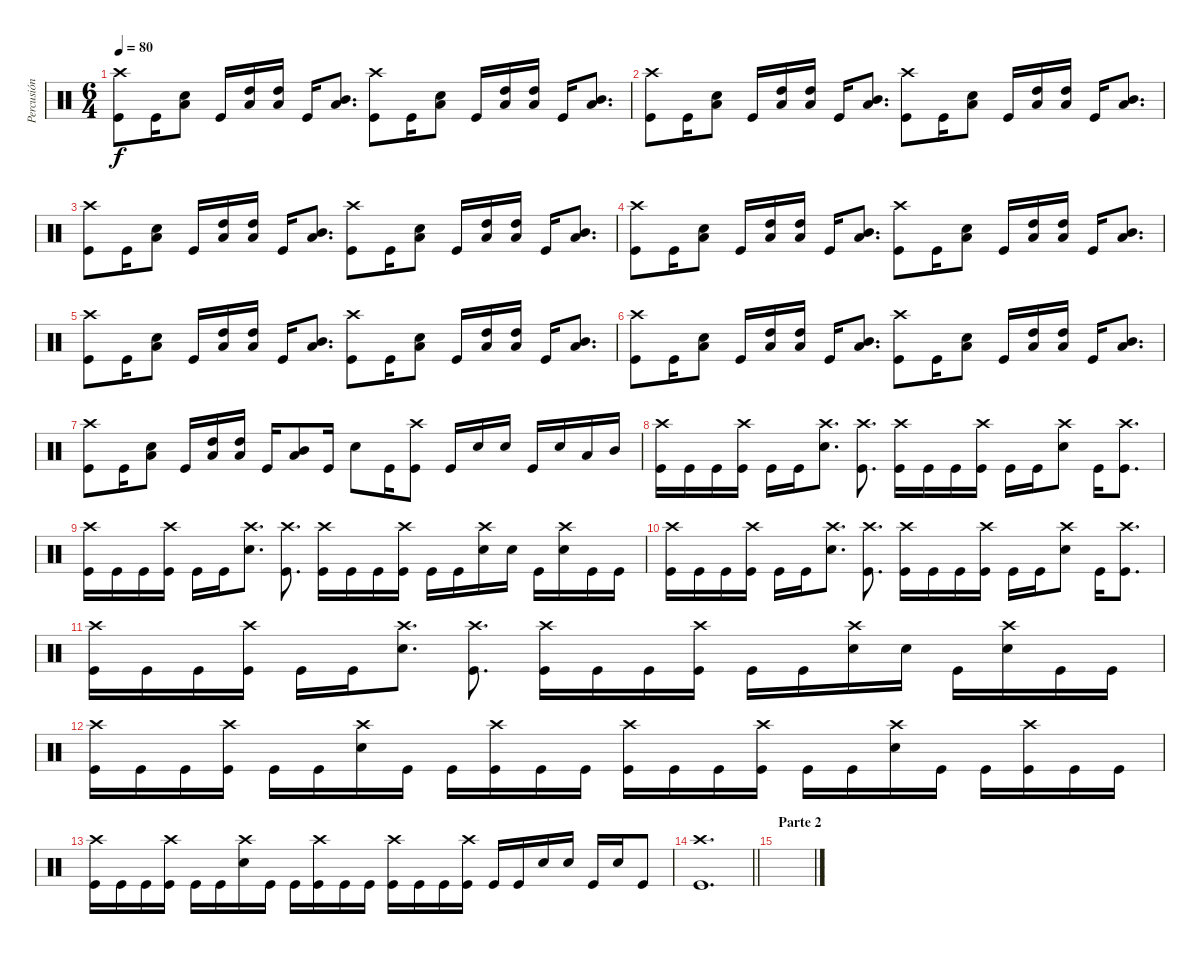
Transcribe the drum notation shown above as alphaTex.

\track ("Percusión" "Percusión") {instrument percussion}
\staff {score}
\articulation defaults
\ts (6 4)
\tempo 80
\clef neutral
\ks c
("Kick (hit)" "Crash high (hit)").8{dy f} "Kick (hit)".16 ("Snare (hit) 2" "Low Tom (hit)").8 "Kick (hit)".16 ("Low Tom (hit)" "High Tom (hit)").16 ("Low Tom (hit)" "High Tom (hit)").16 "Kick (hit)".16 ("Low Tom (hit)" "Mid Tom (hit)").8{d} ("Kick (hit)" "Crash high (hit)").8 "Kick (hit)".16 ("Snare (hit) 2" "Low Tom (hit)").8 "Kick (hit)".16 ("Low Tom (hit)" "High Tom (hit)").16 ("Low Tom (hit)" "High Tom (hit)").16 "Kick (hit)".16 ("Low Tom (hit)" "Mid Tom (hit)").8{d} |
("Kick (hit)" "Crash high (hit)").8 "Kick (hit)".16 ("Snare (hit) 2" "Low Tom (hit)").8 "Kick (hit)".16 ("Low Tom (hit)" "High Tom (hit)").16 ("Low Tom (hit)" "High Tom (hit)").16 "Kick (hit)".16 ("Low Tom (hit)" "Mid Tom (hit)").8{d} ("Kick (hit)" "Crash high (hit)").8 "Kick (hit)".16 ("Snare (hit) 2" "Low Tom (hit)").8 "Kick (hit)".16 ("Low Tom (hit)" "High Tom (hit)").16 ("Low Tom (hit)" "High Tom (hit)").16 "Kick (hit)".16 ("Low Tom (hit)" "Mid Tom (hit)").8{d} |
("Kick (hit)" "Crash high (hit)").8 "Kick (hit)".16 ("Snare (hit) 2" "Low Tom (hit)").8 "Kick (hit)".16 ("Low Tom (hit)" "High Tom (hit)").16 ("Low Tom (hit)" "High Tom (hit)").16 "Kick (hit)".16 ("Low Tom (hit)" "Mid Tom (hit)").8{d} ("Kick (hit)" "Crash high (hit)").8 "Kick (hit)".16 ("Snare (hit) 2" "Low Tom (hit)").8 "Kick (hit)".16 ("Low Tom (hit)" "High Tom (hit)").16 ("Low Tom (hit)" "High Tom (hit)").16 "Kick (hit)".16 ("Low Tom (hit)" "Mid Tom (hit)").8{d} |
("Kick (hit)" "Crash high (hit)").8 "Kick (hit)".16 ("Snare (hit) 2" "Low Tom (hit)").8 "Kick (hit)".16 ("Low Tom (hit)" "High Tom (hit)").16 ("Low Tom (hit)" "High Tom (hit)").16 "Kick (hit)".16 ("Low Tom (hit)" "Mid Tom (hit)").8{d} ("Kick (hit)" "Crash high (hit)").8 "Kick (hit)".16 ("Snare (hit) 2" "Low Tom (hit)").8 "Kick (hit)".16 ("Low Tom (hit)" "High Tom (hit)").16 ("Low Tom (hit)" "High Tom (hit)").16 "Kick (hit)".16 ("Low Tom (hit)" "Mid Tom (hit)").8{d} |
("Kick (hit)" "Crash high (hit)").8 "Kick (hit)".16 ("Snare (hit) 2" "Low Tom (hit)").8 "Kick (hit)".16 ("Low Tom (hit)" "High Tom (hit)").16 ("Low Tom (hit)" "High Tom (hit)").16 "Kick (hit)".16 ("Low Tom (hit)" "Mid Tom (hit)").8{d} ("Kick (hit)" "Crash high (hit)").8 "Kick (hit)".16 ("Snare (hit) 2" "Low Tom (hit)").8 "Kick (hit)".16 ("Low Tom (hit)" "High Tom (hit)").16 ("Low Tom (hit)" "High Tom (hit)").16 "Kick (hit)".16 ("Low Tom (hit)" "Mid Tom (hit)").8{d} |
("Kick (hit)" "Crash high (hit)").8 "Kick (hit)".16 ("Snare (hit) 2" "Low Tom (hit)").8 "Kick (hit)".16 ("Low Tom (hit)" "High Tom (hit)").16 ("Low Tom (hit)" "High Tom (hit)").16 "Kick (hit)".16 ("Low Tom (hit)" "Mid Tom (hit)").8{d} ("Kick (hit)" "Crash high (hit)").8 "Kick (hit)".16 ("Snare (hit) 2" "Low Tom (hit)").8 "Kick (hit)".16 ("Low Tom (hit)" "High Tom (hit)").16 ("Low Tom (hit)" "High Tom (hit)").16 "Kick (hit)".16 ("Low Tom (hit)" "Mid Tom (hit)").8{d} |
("Kick (hit)" "Crash high (hit)").8 "Kick (hit)".16 ("Snare (hit) 2" "Low Tom (hit)").8 "Kick (hit)".16 ("Low Tom (hit)" "High Tom (hit)").16 ("Low Tom (hit)" "High Tom (hit)").16 "Kick (hit)".16 ("Low Tom (hit)" "Mid Tom (hit)").8 "Kick (hit)".16 "Snare (hit) 2".8 "Kick (hit)".16 ("Kick (hit)" "Crash high (hit)").8 "Kick (hit)".16 "Snare (hit) 2".16 "Snare (hit) 2".16 "Kick (hit)".16 "Snare (hit) 2".16 "Low Tom (hit)".16 "Mid Tom (hit)".16 |
("Kick (hit)" "Crash high (hit)").16 "Kick (hit)".16 "Kick (hit)".16 ("Kick (hit)" "Crash high (hit)").16 "Kick (hit)".16 "Kick (hit)".16 ("Snare (hit) 2" "Crash high (hit)").8{d} ("Kick (hit)" "Crash high (hit)").8{d} ("Kick (hit)" "Crash high (hit)").16 "Kick (hit)".16 "Kick (hit)".16 ("Kick (hit)" "Crash high (hit)").16 "Kick (hit)".16 "Kick (hit)".16 ("Crash high (hit)" "Snare (hit) 2").8 "Kick (hit)".16 ("Kick (hit)" "Crash high (hit)").8{d} |
("Kick (hit)" "Crash high (hit)").16 "Kick (hit)".16 "Kick (hit)".16 ("Kick (hit)" "Crash high (hit)").16 "Kick (hit)".16 "Kick (hit)".16 ("Snare (hit) 2" "Crash high (hit)").8{d} ("Kick (hit)" "Crash high (hit)").8{d} ("Kick (hit)" "Crash high (hit)").16 "Kick (hit)".16 "Kick (hit)".16 ("Kick (hit)" "Crash high (hit)").16 "Kick (hit)".16 "Kick (hit)".16 ("Crash high (hit)" "Snare (hit) 2").16 "Snare (hit) 2".16 "Kick (hit)".16 ("Snare (hit) 2" "Crash high (hit)").16 "Kick (hit)".16 "Kick (hit)".16 |
("Kick (hit)" "Crash high (hit)").16 "Kick (hit)".16 "Kick (hit)".16 ("Kick (hit)" "Crash high (hit)").16 "Kick (hit)".16 "Kick (hit)".16 ("Snare (hit) 2" "Crash high (hit)").8{d} ("Kick (hit)" "Crash high (hit)").8{d} ("Kick (hit)" "Crash high (hit)").16 "Kick (hit)".16 "Kick (hit)".16 ("Kick (hit)" "Crash high (hit)").16 "Kick (hit)".16 "Kick (hit)".16 ("Crash high (hit)" "Snare (hit) 2").8 "Kick (hit)".16 ("Kick (hit)" "Crash high (hit)").8{d} |
("Kick (hit)" "Crash high (hit)").16 "Kick (hit)".16 "Kick (hit)".16 ("Kick (hit)" "Crash high (hit)").16 "Kick (hit)".16 "Kick (hit)".16 ("Snare (hit) 2" "Crash high (hit)").8{d} ("Kick (hit)" "Crash high (hit)").8{d} ("Kick (hit)" "Crash high (hit)").16 "Kick (hit)".16 "Kick (hit)".16 ("Kick (hit)" "Crash high (hit)").16 "Kick (hit)".16 "Kick (hit)".16 ("Crash high (hit)" "Snare (hit) 2").16 "Snare (hit) 2".16 "Kick (hit)".16 ("Snare (hit) 2" "Crash high (hit)").16 "Kick (hit)".16 "Kick (hit)".16 |
("Kick (hit)" "Crash high (hit)").16 "Kick (hit)".16 "Kick (hit)".16 ("Kick (hit)" "Crash high (hit)").16 "Kick (hit)".16 "Kick (hit)".16 ("Snare (hit) 2" "Crash high (hit)").16 "Kick (hit)".16 "Kick (hit)".16 ("Kick (hit)" "Crash high (hit)").16 "Kick (hit)".16 "Kick (hit)".16 ("Kick (hit)" "Crash high (hit)").16 "Kick (hit)".16 "Kick (hit)".16 ("Kick (hit)" "Crash high (hit)").16 "Kick (hit)".16 "Kick (hit)".16 ("Snare (hit) 2" "Crash high (hit)").16 "Kick (hit)".16 "Kick (hit)".16 ("Kick (hit)" "Crash high (hit)").16 "Kick (hit)".16 "Kick (hit)".16 |
("Kick (hit)" "Crash high (hit)").16 "Kick (hit)".16 "Kick (hit)".16 ("Kick (hit)" "Crash high (hit)").16 "Kick (hit)".16 "Kick (hit)".16 ("Snare (hit) 2" "Crash high (hit)").16 "Kick (hit)".16 "Kick (hit)".16 ("Kick (hit)" "Crash high (hit)").16 "Kick (hit)".16 "Kick (hit)".16 ("Kick (hit)" "Crash high (hit)").16 "Kick (hit)".16 "Kick (hit)".16 ("Kick (hit)" "Crash high (hit)").16 "Kick (hit)".16 "Kick (hit)".16 "Snare (hit) 2".16 "Snare (hit) 2".16 "Kick (hit)".16 "Snare (hit) 2".16 "Kick (hit)".8 |
\barLineRight lightlight
("Kick (hit)" "Crash high (hit)").1{d} |
\section ("" "Parte 2")
